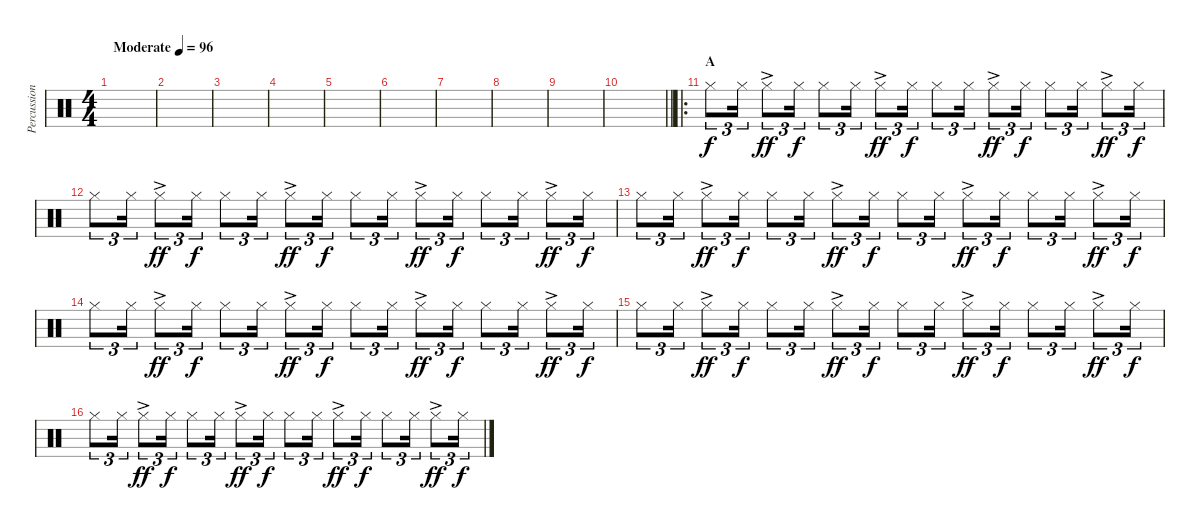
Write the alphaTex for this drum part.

\track ("Percussion" "Percussion") {instrument percussion}
\staff {score}
\articulation defaults
\ts (4 4)
\tempo (96 "Moderate")
\clef neutral
\ks c
|
|
|
|
|
|
|
|
|
\barLineRight lightlight
|
\ro
\section ("" "A")
"Hi-Hat (closed)".8{tu (3 2)} "Hi-Hat (closed)".16{tu (3 2)} "Hi-Hat (closed)"{ac}.8{tu (3 2) dy ff} "Hi-Hat (closed)".16{tu (3 2) dy f} "Hi-Hat (closed)".8{tu (3 2)} "Hi-Hat (closed)".16{tu (3 2)} "Hi-Hat (closed)"{ac}.8{tu (3 2) dy ff} "Hi-Hat (closed)".16{tu (3 2) dy f} "Hi-Hat (closed)".8{tu (3 2)} "Hi-Hat (closed)".16{tu (3 2)} "Hi-Hat (closed)"{ac}.8{tu (3 2) dy ff} "Hi-Hat (closed)".16{tu (3 2) dy f} "Hi-Hat (closed)".8{tu (3 2)} "Hi-Hat (closed)".16{tu (3 2)} "Hi-Hat (closed)"{ac}.8{tu (3 2) dy ff} "Hi-Hat (closed)".16{tu (3 2) dy f} |
"Hi-Hat (closed)".8{tu (3 2)} "Hi-Hat (closed)".16{tu (3 2)} "Hi-Hat (closed)"{ac}.8{tu (3 2) dy ff} "Hi-Hat (closed)".16{tu (3 2) dy f} "Hi-Hat (closed)".8{tu (3 2)} "Hi-Hat (closed)".16{tu (3 2)} "Hi-Hat (closed)"{ac}.8{tu (3 2) dy ff} "Hi-Hat (closed)".16{tu (3 2) dy f} "Hi-Hat (closed)".8{tu (3 2)} "Hi-Hat (closed)".16{tu (3 2)} "Hi-Hat (closed)"{ac}.8{tu (3 2) dy ff} "Hi-Hat (closed)".16{tu (3 2) dy f} "Hi-Hat (closed)".8{tu (3 2)} "Hi-Hat (closed)".16{tu (3 2)} "Hi-Hat (closed)"{ac}.8{tu (3 2) dy ff} "Hi-Hat (closed)".16{tu (3 2) dy f} |
"Hi-Hat (closed)".8{tu (3 2)} "Hi-Hat (closed)".16{tu (3 2)} "Hi-Hat (closed)"{ac}.8{tu (3 2) dy ff} "Hi-Hat (closed)".16{tu (3 2) dy f} "Hi-Hat (closed)".8{tu (3 2)} "Hi-Hat (closed)".16{tu (3 2)} "Hi-Hat (closed)"{ac}.8{tu (3 2) dy ff} "Hi-Hat (closed)".16{tu (3 2) dy f} "Hi-Hat (closed)".8{tu (3 2)} "Hi-Hat (closed)".16{tu (3 2)} "Hi-Hat (closed)"{ac}.8{tu (3 2) dy ff} "Hi-Hat (closed)".16{tu (3 2) dy f} "Hi-Hat (closed)".8{tu (3 2)} "Hi-Hat (closed)".16{tu (3 2)} "Hi-Hat (closed)"{ac}.8{tu (3 2) dy ff} "Hi-Hat (closed)".16{tu (3 2) dy f} |
"Hi-Hat (closed)".8{tu (3 2)} "Hi-Hat (closed)".16{tu (3 2)} "Hi-Hat (closed)"{ac}.8{tu (3 2) dy ff} "Hi-Hat (closed)".16{tu (3 2) dy f} "Hi-Hat (closed)".8{tu (3 2)} "Hi-Hat (closed)".16{tu (3 2)} "Hi-Hat (closed)"{ac}.8{tu (3 2) dy ff} "Hi-Hat (closed)".16{tu (3 2) dy f} "Hi-Hat (closed)".8{tu (3 2)} "Hi-Hat (closed)".16{tu (3 2)} "Hi-Hat (closed)"{ac}.8{tu (3 2) dy ff} "Hi-Hat (closed)".16{tu (3 2) dy f} "Hi-Hat (closed)".8{tu (3 2)} "Hi-Hat (closed)".16{tu (3 2)} "Hi-Hat (closed)"{ac}.8{tu (3 2) dy ff} "Hi-Hat (closed)".16{tu (3 2) dy f} |
"Hi-Hat (closed)".8{tu (3 2)} "Hi-Hat (closed)".16{tu (3 2)} "Hi-Hat (closed)"{ac}.8{tu (3 2) dy ff} "Hi-Hat (closed)".16{tu (3 2) dy f} "Hi-Hat (closed)".8{tu (3 2)} "Hi-Hat (closed)".16{tu (3 2)} "Hi-Hat (closed)"{ac}.8{tu (3 2) dy ff} "Hi-Hat (closed)".16{tu (3 2) dy f} "Hi-Hat (closed)".8{tu (3 2)} "Hi-Hat (closed)".16{tu (3 2)} "Hi-Hat (closed)"{ac}.8{tu (3 2) dy ff} "Hi-Hat (closed)".16{tu (3 2) dy f} "Hi-Hat (closed)".8{tu (3 2)} "Hi-Hat (closed)".16{tu (3 2)} "Hi-Hat (closed)"{ac}.8{tu (3 2) dy ff} "Hi-Hat (closed)".16{tu (3 2) dy f} |
"Hi-Hat (closed)".8{tu (3 2)} "Hi-Hat (closed)".16{tu (3 2)} "Hi-Hat (closed)"{ac}.8{tu (3 2) dy ff} "Hi-Hat (closed)".16{tu (3 2) dy f} "Hi-Hat (closed)".8{tu (3 2)} "Hi-Hat (closed)".16{tu (3 2)} "Hi-Hat (closed)"{ac}.8{tu (3 2) dy ff} "Hi-Hat (closed)".16{tu (3 2) dy f} "Hi-Hat (closed)".8{tu (3 2)} "Hi-Hat (closed)".16{tu (3 2)} "Hi-Hat (closed)"{ac}.8{tu (3 2) dy ff} "Hi-Hat (closed)".16{tu (3 2) dy f} "Hi-Hat (closed)".8{tu (3 2)} "Hi-Hat (closed)".16{tu (3 2)} "Hi-Hat (closed)"{ac}.8{tu (3 2) dy ff} "Hi-Hat (closed)".16{tu (3 2) dy f}
